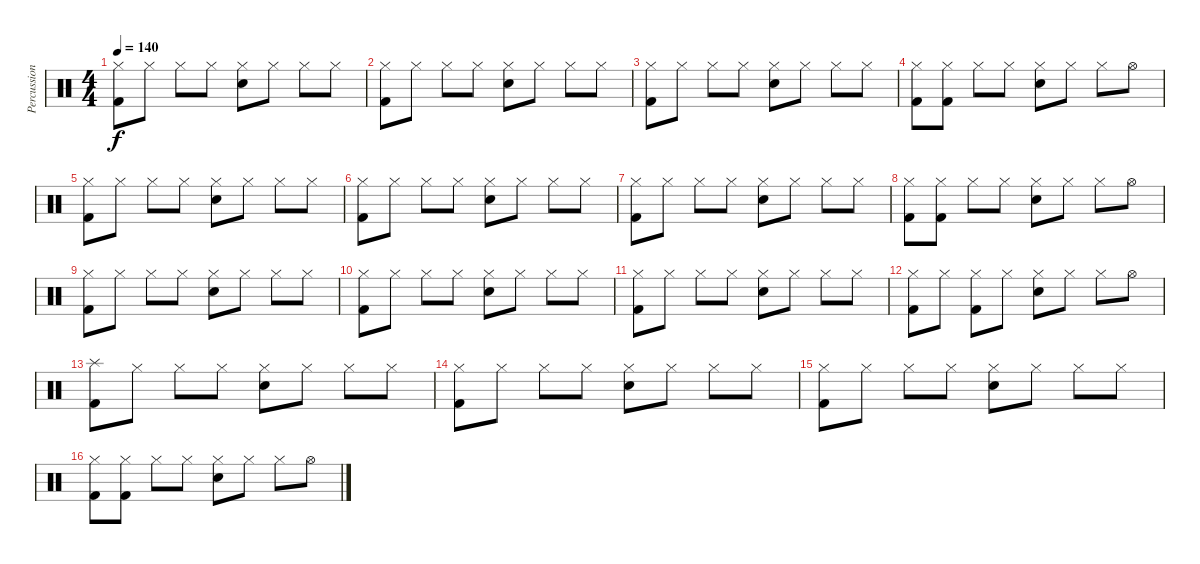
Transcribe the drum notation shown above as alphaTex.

\track ("Percussion" "Percussion") {instrument percussion}
\staff {score}
\articulation defaults
\ts (4 4)
\tempo 140
\clef neutral
\ks c
("Kick (hit) 2" "Hi-Hat (closed)").8{dy f} "Hi-Hat (closed)".8 "Hi-Hat (closed)".8 "Hi-Hat (closed)".8 ("Electric Snare (hit)" "Hi-Hat (closed)").8 "Hi-Hat (closed)".8 "Hi-Hat (closed)".8 "Hi-Hat (closed)".8 |
("Kick (hit) 2" "Hi-Hat (closed)").8 "Hi-Hat (closed)".8 "Hi-Hat (closed)".8 "Hi-Hat (closed)".8 ("Electric Snare (hit)" "Hi-Hat (closed)").8 "Hi-Hat (closed)".8 "Hi-Hat (closed)".8 "Hi-Hat (closed)".8 |
("Kick (hit) 2" "Hi-Hat (closed)").8 "Hi-Hat (closed)".8 "Hi-Hat (closed)".8 "Hi-Hat (closed)".8 ("Electric Snare (hit)" "Hi-Hat (closed)").8 "Hi-Hat (closed)".8 "Hi-Hat (closed)".8 "Hi-Hat (closed)".8 |
("Kick (hit) 2" "Hi-Hat (closed)").8 ("Hi-Hat (closed)" "Kick (hit) 2").8 "Hi-Hat (closed)".8 "Hi-Hat (closed)".8 ("Electric Snare (hit)" "Hi-Hat (closed)").8 "Hi-Hat (closed)".8 "Hi-Hat (closed)".8 "Hi-Hat (open)".8 |
("Kick (hit) 2" "Hi-Hat (closed)").8 "Hi-Hat (closed)".8 "Hi-Hat (closed)".8 "Hi-Hat (closed)".8 ("Electric Snare (hit)" "Hi-Hat (closed)").8 "Hi-Hat (closed)".8 "Hi-Hat (closed)".8 "Hi-Hat (closed)".8 |
("Kick (hit) 2" "Hi-Hat (closed)").8 "Hi-Hat (closed)".8 "Hi-Hat (closed)".8 "Hi-Hat (closed)".8 ("Electric Snare (hit)" "Hi-Hat (closed)").8 "Hi-Hat (closed)".8 "Hi-Hat (closed)".8 "Hi-Hat (closed)".8 |
("Kick (hit) 2" "Hi-Hat (closed)").8 "Hi-Hat (closed)".8 "Hi-Hat (closed)".8 "Hi-Hat (closed)".8 ("Electric Snare (hit)" "Hi-Hat (closed)").8 "Hi-Hat (closed)".8 "Hi-Hat (closed)".8 "Hi-Hat (closed)".8 |
("Kick (hit) 2" "Hi-Hat (closed)").8 ("Hi-Hat (closed)" "Kick (hit) 2").8 "Hi-Hat (closed)".8 "Hi-Hat (closed)".8 ("Electric Snare (hit)" "Hi-Hat (closed)").8 "Hi-Hat (closed)".8 "Hi-Hat (closed)".8 "Hi-Hat (open)".8 |
("Kick (hit) 2" "Hi-Hat (closed)").8 "Hi-Hat (closed)".8 "Hi-Hat (closed)".8 "Hi-Hat (closed)".8 ("Electric Snare (hit)" "Hi-Hat (closed)").8 "Hi-Hat (closed)".8 "Hi-Hat (closed)".8 "Hi-Hat (closed)".8 |
("Kick (hit) 2" "Hi-Hat (closed)").8 "Hi-Hat (closed)".8 "Hi-Hat (closed)".8 "Hi-Hat (closed)".8 ("Electric Snare (hit)" "Hi-Hat (closed)").8 "Hi-Hat (closed)".8 "Hi-Hat (closed)".8 "Hi-Hat (closed)".8 |
("Kick (hit) 2" "Hi-Hat (closed)").8 "Hi-Hat (closed)".8 "Hi-Hat (closed)".8 "Hi-Hat (closed)".8 ("Electric Snare (hit)" "Hi-Hat (closed)").8 "Hi-Hat (closed)".8 "Hi-Hat (closed)".8 "Hi-Hat (closed)".8 |
("Kick (hit) 2" "Hi-Hat (closed)").8 "Hi-Hat (closed)".8 ("Hi-Hat (closed)" "Kick (hit) 2").8{beam Down} "Hi-Hat (closed)".8{beam Down} ("Electric Snare (hit)" "Hi-Hat (closed)").8 "Hi-Hat (closed)".8 "Hi-Hat (closed)".8 "Hi-Hat (open)".8 |
("Kick (hit) 2" "Splash (hit)").8 "Hi-Hat (closed)".8 "Hi-Hat (closed)".8 "Hi-Hat (closed)".8 ("Electric Snare (hit)" "Hi-Hat (closed)").8 "Hi-Hat (closed)".8 "Hi-Hat (closed)".8 "Hi-Hat (closed)".8 |
("Kick (hit) 2" "Hi-Hat (closed)").8 "Hi-Hat (closed)".8 "Hi-Hat (closed)".8 "Hi-Hat (closed)".8 ("Electric Snare (hit)" "Hi-Hat (closed)").8 "Hi-Hat (closed)".8 "Hi-Hat (closed)".8 "Hi-Hat (closed)".8 |
("Kick (hit) 2" "Hi-Hat (closed)").8 "Hi-Hat (closed)".8 "Hi-Hat (closed)".8 "Hi-Hat (closed)".8 ("Electric Snare (hit)" "Hi-Hat (closed)").8 "Hi-Hat (closed)".8 "Hi-Hat (closed)".8 "Hi-Hat (closed)".8 |
("Kick (hit) 2" "Hi-Hat (closed)").8 ("Hi-Hat (closed)" "Kick (hit) 2").8 "Hi-Hat (closed)".8 "Hi-Hat (closed)".8 ("Electric Snare (hit)" "Hi-Hat (closed)").8 "Hi-Hat (closed)".8 "Hi-Hat (closed)".8 "Hi-Hat (open)".8
